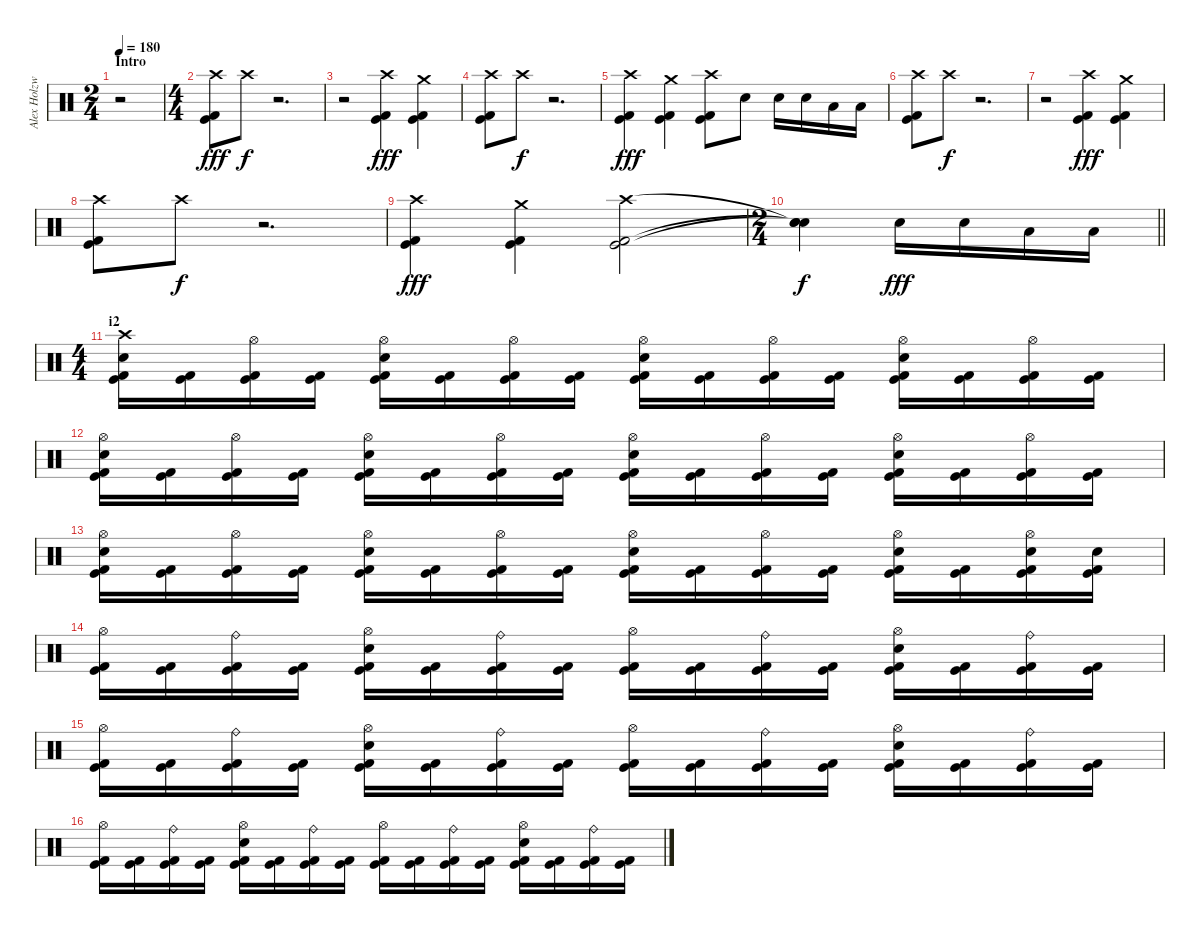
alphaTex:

\track ("Alex Holzwarth" "Alex Holzw") {instrument percussion}
\staff {score}
\articulation defaults
\ts (2 4)
\section ("" "Intro")
\tempo 180
\clef neutral
\ks c
r.2{dy fff} |
\ts (4 4)
("Crash high (hit)" "Kick (hit)" "Kick (hit) 2").8 "Crash high (hit)".8{dy f volume 0} r.2{d} |
r.2{volume 16} ("Crash high (hit)" "Kick (hit)" "Kick (hit) 2").4{dy fff} ("Crash medium (hit)" "Kick (hit)" "Kick (hit) 2").4 |
("Crash high (hit)" "Kick (hit)" "Kick (hit) 2").8 "Crash high (hit)".8{dy f volume 0} r.2{d} |
("Crash high (hit)" "Kick (hit)" "Kick (hit) 2").4{dy fff volume 16} ("Crash medium (hit)" "Kick (hit)" "Kick (hit) 2").4 ("Crash high (hit)" "Kick (hit)" "Kick (hit) 2").8 "Snare (hit) 2".8 "Snare (hit) 2".16 "Snare (hit) 2".16 "Low Tom (hit)".16 "Low Tom (hit)".16 |
("Crash high (hit)" "Kick (hit)" "Kick (hit) 2").8 "Crash high (hit)".8{dy f volume 0} r.2{d} |
r.2{volume 16} ("Crash high (hit)" "Kick (hit)" "Kick (hit) 2").4{dy fff} ("Crash medium (hit)" "Kick (hit)" "Kick (hit) 2").4 |
("Crash high (hit)" "Kick (hit)" "Kick (hit) 2").8 "Crash high (hit)".8{dy f volume 0} r.2{d} |
("Crash high (hit)" "Kick (hit)" "Kick (hit) 2").4{dy fff volume 16} ("Crash medium (hit)" "Kick (hit)" "Kick (hit) 2").4 ("Crash high (hit)" "Kick (hit)" "Kick (hit) 2").2 |
\ts (2 4)
\barLineRight lightlight
("Snare (hit)"{t} "Snare (hit)"{t} "Snare (hit)"{t}).4{dy f} "Snare (hit) 2".16{dy fff} "Snare (hit) 2".16 "Low Tom (hit)".16 "Low Tom (hit)".16 |
\ts (4 4)
\section ("" "i2")
("Crash high (hit)" "Snare (hit) 2" "Kick (hit)" "Kick (hit) 2").16 ("Kick (hit)" "Kick (hit) 2").16 ("Hi-Hat (open)" "Kick (hit)" "Kick (hit) 2").16 ("Kick (hit)" "Kick (hit) 2").16 ("Hi-Hat (open)" "Snare (hit) 2" "Kick (hit)" "Kick (hit) 2").16 ("Kick (hit)" "Kick (hit) 2").16 ("Hi-Hat (open)" "Kick (hit)" "Kick (hit) 2").16 ("Kick (hit)" "Kick (hit) 2").16 ("Hi-Hat (open)" "Snare (hit) 2" "Kick (hit)" "Kick (hit) 2").16 ("Kick (hit)" "Kick (hit) 2").16 ("Hi-Hat (open)" "Kick (hit)" "Kick (hit) 2").16 ("Kick (hit)" "Kick (hit) 2").16 ("Hi-Hat (open)" "Snare (hit) 2" "Kick (hit)" "Kick (hit) 2").16 ("Kick (hit)" "Kick (hit) 2").16 ("Hi-Hat (open)" "Kick (hit)" "Kick (hit) 2").16 ("Kick (hit)" "Kick (hit) 2").16 |
("Hi-Hat (open)" "Snare (hit) 2" "Kick (hit)" "Kick (hit) 2").16 ("Kick (hit)" "Kick (hit) 2").16 ("Hi-Hat (open)" "Kick (hit)" "Kick (hit) 2").16 ("Kick (hit)" "Kick (hit) 2").16 ("Hi-Hat (open)" "Snare (hit) 2" "Kick (hit)" "Kick (hit) 2").16 ("Kick (hit)" "Kick (hit) 2").16 ("Hi-Hat (open)" "Kick (hit)" "Kick (hit) 2").16 ("Kick (hit)" "Kick (hit) 2").16 ("Hi-Hat (open)" "Snare (hit) 2" "Kick (hit)" "Kick (hit) 2").16 ("Kick (hit)" "Kick (hit) 2").16 ("Hi-Hat (open)" "Kick (hit)" "Kick (hit) 2").16 ("Kick (hit)" "Kick (hit) 2").16 ("Hi-Hat (open)" "Snare (hit) 2" "Kick (hit)" "Kick (hit) 2").16 ("Kick (hit)" "Kick (hit) 2").16 ("Hi-Hat (open)" "Kick (hit)" "Kick (hit) 2").16 ("Kick (hit)" "Kick (hit) 2").16 |
("Hi-Hat (open)" "Snare (hit) 2" "Kick (hit)" "Kick (hit) 2").16 ("Kick (hit)" "Kick (hit) 2").16 ("Hi-Hat (open)" "Kick (hit)" "Kick (hit) 2").16 ("Kick (hit)" "Kick (hit) 2").16 ("Hi-Hat (open)" "Snare (hit) 2" "Kick (hit)" "Kick (hit) 2").16 ("Kick (hit)" "Kick (hit) 2").16 ("Hi-Hat (open)" "Kick (hit)" "Kick (hit) 2").16 ("Kick (hit)" "Kick (hit) 2").16 ("Hi-Hat (open)" "Snare (hit) 2" "Kick (hit)" "Kick (hit) 2").16 ("Kick (hit)" "Kick (hit) 2").16 ("Hi-Hat (open)" "Kick (hit)" "Kick (hit) 2").16 ("Kick (hit)" "Kick (hit) 2").16 ("Hi-Hat (open)" "Snare (hit) 2" "Kick (hit)" "Kick (hit) 2").16 ("Kick (hit)" "Kick (hit) 2").16 ("Hi-Hat (open)" "Snare (hit) 2" "Kick (hit)" "Kick (hit) 2").16 ("Snare (hit) 2" "Kick (hit)" "Kick (hit) 2").16 |
("Hi-Hat (open)" "Kick (hit)" "Kick (hit) 2").16 ("Kick (hit)" "Kick (hit) 2").16 ("Ride (bell)" "Kick (hit)" "Kick (hit) 2").16 ("Kick (hit)" "Kick (hit) 2").16 ("Hi-Hat (open)" "Snare (hit) 2" "Kick (hit)" "Kick (hit) 2").16 ("Kick (hit)" "Kick (hit) 2").16 ("Ride (bell)" "Kick (hit)" "Kick (hit) 2").16 ("Kick (hit)" "Kick (hit) 2").16 ("Hi-Hat (open)" "Kick (hit)" "Kick (hit) 2").16 ("Kick (hit)" "Kick (hit) 2").16 ("Ride (bell)" "Kick (hit)" "Kick (hit) 2").16 ("Kick (hit)" "Kick (hit) 2").16 ("Hi-Hat (open)" "Snare (hit) 2" "Kick (hit)" "Kick (hit) 2").16 ("Kick (hit)" "Kick (hit) 2").16 ("Ride (bell)" "Kick (hit)" "Kick (hit) 2").16 ("Kick (hit)" "Kick (hit) 2").16 |
("Hi-Hat (open)" "Kick (hit)" "Kick (hit) 2").16 ("Kick (hit)" "Kick (hit) 2").16 ("Ride (bell)" "Kick (hit)" "Kick (hit) 2").16 ("Kick (hit)" "Kick (hit) 2").16 ("Hi-Hat (open)" "Snare (hit) 2" "Kick (hit)" "Kick (hit) 2").16 ("Kick (hit)" "Kick (hit) 2").16 ("Ride (bell)" "Kick (hit)" "Kick (hit) 2").16 ("Kick (hit)" "Kick (hit) 2").16 ("Hi-Hat (open)" "Kick (hit)" "Kick (hit) 2").16 ("Kick (hit)" "Kick (hit) 2").16 ("Ride (bell)" "Kick (hit)" "Kick (hit) 2").16 ("Kick (hit)" "Kick (hit) 2").16 ("Hi-Hat (open)" "Snare (hit) 2" "Kick (hit)" "Kick (hit) 2").16 ("Kick (hit)" "Kick (hit) 2").16 ("Ride (bell)" "Kick (hit)" "Kick (hit) 2").16 ("Kick (hit)" "Kick (hit) 2").16 |
("Hi-Hat (open)" "Kick (hit)" "Kick (hit) 2").16 ("Kick (hit)" "Kick (hit) 2").16 ("Ride (bell)" "Kick (hit)" "Kick (hit) 2").16 ("Kick (hit)" "Kick (hit) 2").16 ("Hi-Hat (open)" "Snare (hit) 2" "Kick (hit)" "Kick (hit) 2").16 ("Kick (hit)" "Kick (hit) 2").16 ("Ride (bell)" "Kick (hit)" "Kick (hit) 2").16 ("Kick (hit)" "Kick (hit) 2").16 ("Hi-Hat (open)" "Kick (hit)" "Kick (hit) 2").16 ("Kick (hit)" "Kick (hit) 2").16 ("Ride (bell)" "Kick (hit)" "Kick (hit) 2").16 ("Kick (hit)" "Kick (hit) 2").16 ("Hi-Hat (open)" "Snare (hit) 2" "Kick (hit)" "Kick (hit) 2").16 ("Kick (hit)" "Kick (hit) 2").16 ("Ride (bell)" "Kick (hit)" "Kick (hit) 2").16 ("Kick (hit)" "Kick (hit) 2").16
